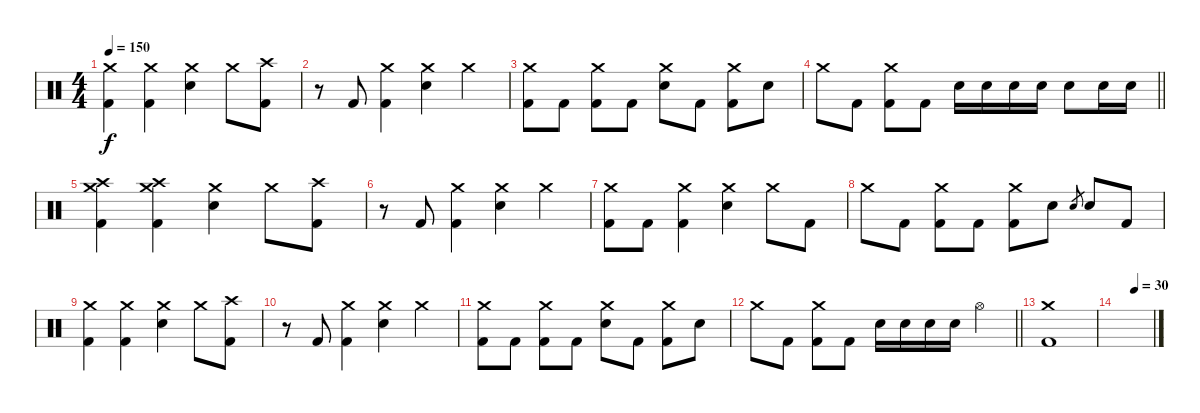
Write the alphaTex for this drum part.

\track "" {instrument percussion}
\staff {score}
\articulation defaults
\ts (4 4)
\tempo 150
\clef neutral
\ks c
("Crash medium (hit)" "Kick (hit) 2").4{dy f} ("Crash medium (hit)" "Kick (hit) 2").4 ("Crash medium (hit)" "Electric Snare (hit)").4 "Crash medium (hit)".8 ("Crash high (hit)" "Kick (hit) 2").8 |
r.8 "Kick (hit) 2".8 ("Crash medium (hit)" "Kick (hit) 2").4 ("Crash medium (hit)" "Electric Snare (hit)").4 "Crash medium (hit)".4 |
("Crash medium (hit)" "Kick (hit) 2").8 "Kick (hit) 2".8 ("Crash medium (hit)" "Kick (hit) 2").8 "Kick (hit) 2".8 ("Crash medium (hit)" "Electric Snare (hit)").8 "Kick (hit) 2".8 ("Crash medium (hit)" "Kick (hit) 2").8 "Electric Snare (hit)".8 |
\barLineRight lightlight "Crash medium (hit)".8 "Kick (hit) 2".8
("Crash medium (hit)" "Kick (hit) 2").8 "Kick (hit) 2".8 "Electric Snare (hit)".16 "Electric Snare (hit)".16 "Electric Snare (hit)".16 "Electric Snare (hit)".16 "Electric Snare (hit)".8 "Electric Snare (hit)".16 "Electric Snare (hit)".16 |
("Crash medium (hit)" "Crash high (hit)" "Kick (hit) 2").4 ("Crash medium (hit)" "Crash high (hit)" "Kick (hit) 2").4 ("Crash medium (hit)" "Electric Snare (hit)").4 "Crash medium (hit)".8 ("Crash high (hit)" "Kick (hit) 2").8 |
r.8 "Kick (hit) 2".8 ("Crash medium (hit)" "Kick (hit) 2").4 ("Crash medium (hit)" "Electric Snare (hit)").4 "Crash medium (hit)".4 |
("Crash medium (hit)" "Kick (hit) 2").8 "Kick (hit) 2".8 ("Crash medium (hit)" "Kick (hit) 2").4 ("Crash medium (hit)" "Electric Snare (hit)").4 "Crash medium (hit)".8 "Kick (hit) 2".8 |
"Crash medium (hit)".8 "Kick (hit) 2".8 ("Crash medium (hit)" "Kick (hit) 2").8 "Kick (hit) 2".8 ("Crash medium (hit)" "Kick (hit) 2").8 "Electric Snare (hit)".8 "Electric Snare (hit)".8{gr} "Electric Snare (hit)".8 "Kick (hit) 2".8 |
("Crash medium (hit)" "Kick (hit) 2").4 ("Crash medium (hit)" "Kick (hit) 2").4 ("Crash medium (hit)" "Electric Snare (hit)").4 "Crash medium (hit)".8 ("Crash high (hit)" "Kick (hit) 2").8 |
r.8 "Kick (hit) 2".8 ("Crash medium (hit)" "Kick (hit) 2").4 ("Crash medium (hit)" "Electric Snare (hit)").4 "Crash medium (hit)".4 |
("Crash medium (hit)" "Kick (hit) 2").8 "Kick (hit) 2".8 ("Crash medium (hit)" "Kick (hit) 2").8 "Kick (hit) 2".8 ("Crash medium (hit)" "Electric Snare (hit)").8 "Kick (hit) 2".8 ("Crash medium (hit)" "Kick (hit) 2").8 "Electric Snare (hit)".8 |
\barLineRight lightlight "Crash medium (hit)".8 "Kick (hit) 2".8
("Crash medium (hit)" "Kick (hit) 2").8 "Kick (hit) 2".8 "Electric Snare (hit)".16 "Electric Snare (hit)".16 "Electric Snare (hit)".16 "Electric Snare (hit)".16 "Hi-Hat (open)".4 |
("Crash medium (hit)" "Kick (hit) 2").1 |
\tempo (30 0.5)
